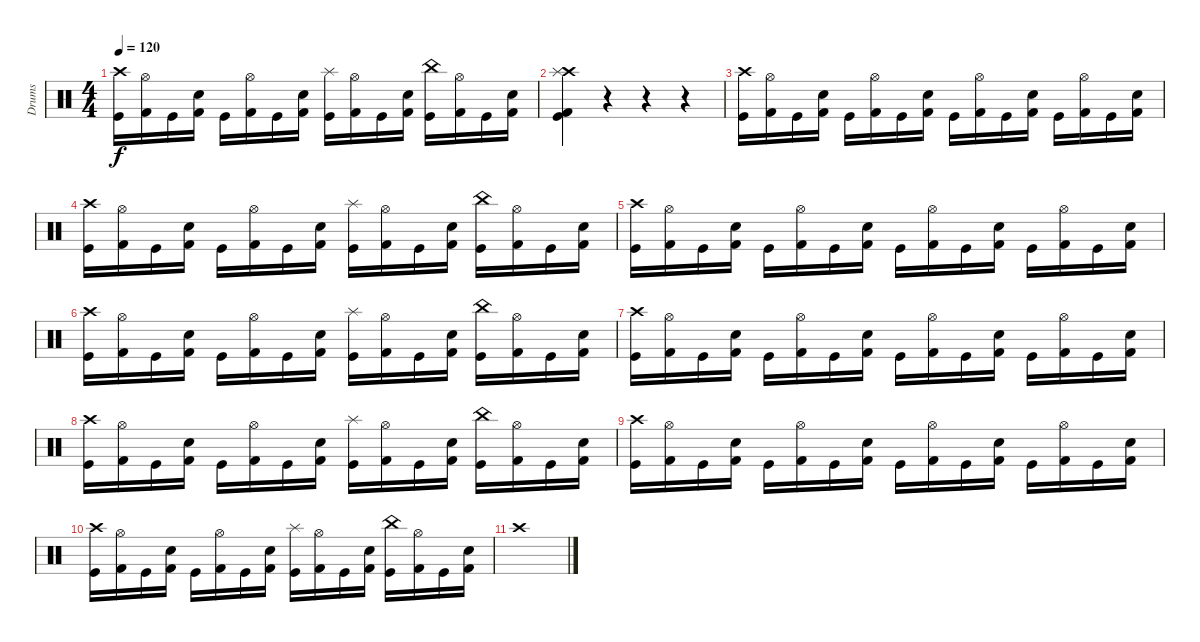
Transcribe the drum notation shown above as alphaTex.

\track ("Drums" "Drums") {instrument percussion}
\staff {score}
\articulation defaults
\ts (4 4)
\tempo 120
\clef neutral
\ks c
("Crash high (hit)" "Kick (hit)").16{dy f} ("Hi-Hat (open)" "Kick (hit) 2").16 "Kick (hit)".16 ("Electric Snare (hit)" "Kick (hit) 2").16 "Kick (hit)".16 ("Hi-Hat (open)" "Kick (hit) 2").16 "Kick (hit)".16 ("Electric Snare (hit)" "Kick (hit) 2").16 ("Splash (hit)" "Kick (hit)").16 ("Hi-Hat (open)" "Kick (hit) 2").16 "Kick (hit)".16 ("Electric Snare (hit)" "Kick (hit) 2").16 ("China (hit)" "Kick (hit)").16 ("Hi-Hat (open)" "Kick (hit) 2").16 "Kick (hit)".16 ("Electric Snare (hit)" "Kick (hit) 2").16 |
("Crash high (hit)" "Splash (hit)" "Kick (hit) 2" "Kick (hit)").4 r.4 r.4 r.4 |
("Crash high (hit)" "Kick (hit)").16 ("Hi-Hat (open)" "Kick (hit) 2").16 "Kick (hit)".16 ("Electric Snare (hit)" "Kick (hit) 2").16 "Kick (hit)".16 ("Hi-Hat (open)" "Kick (hit) 2").16 "Kick (hit)".16 ("Electric Snare (hit)" "Kick (hit) 2").16 "Kick (hit)".16 ("Hi-Hat (open)" "Kick (hit) 2").16 "Kick (hit)".16 ("Electric Snare (hit)" "Kick (hit) 2").16 "Kick (hit)".16 ("Hi-Hat (open)" "Kick (hit) 2").16 "Kick (hit)".16 ("Electric Snare (hit)" "Kick (hit) 2").16 |
("Crash high (hit)" "Kick (hit)").16 ("Hi-Hat (open)" "Kick (hit) 2").16 "Kick (hit)".16 ("Electric Snare (hit)" "Kick (hit) 2").16 "Kick (hit)".16 ("Hi-Hat (open)" "Kick (hit) 2").16 "Kick (hit)".16 ("Electric Snare (hit)" "Kick (hit) 2").16 ("Splash (hit)" "Kick (hit)").16 ("Hi-Hat (open)" "Kick (hit) 2").16 "Kick (hit)".16 ("Electric Snare (hit)" "Kick (hit) 2").16 ("China (hit)" "Kick (hit)").16 ("Hi-Hat (open)" "Kick (hit) 2").16 "Kick (hit)".16 ("Electric Snare (hit)" "Kick (hit) 2").16 |
("Crash high (hit)" "Kick (hit)").16 ("Hi-Hat (open)" "Kick (hit) 2").16 "Kick (hit)".16 ("Electric Snare (hit)" "Kick (hit) 2").16 "Kick (hit)".16 ("Hi-Hat (open)" "Kick (hit) 2").16 "Kick (hit)".16 ("Electric Snare (hit)" "Kick (hit) 2").16 "Kick (hit)".16 ("Hi-Hat (open)" "Kick (hit) 2").16 "Kick (hit)".16 ("Electric Snare (hit)" "Kick (hit) 2").16 "Kick (hit)".16 ("Hi-Hat (open)" "Kick (hit) 2").16 "Kick (hit)".16 ("Electric Snare (hit)" "Kick (hit) 2").16 |
("Crash high (hit)" "Kick (hit)").16 ("Hi-Hat (open)" "Kick (hit) 2").16 "Kick (hit)".16 ("Electric Snare (hit)" "Kick (hit) 2").16 "Kick (hit)".16 ("Hi-Hat (open)" "Kick (hit) 2").16 "Kick (hit)".16 ("Electric Snare (hit)" "Kick (hit) 2").16 ("Splash (hit)" "Kick (hit)").16 ("Hi-Hat (open)" "Kick (hit) 2").16 "Kick (hit)".16 ("Electric Snare (hit)" "Kick (hit) 2").16 ("China (hit)" "Kick (hit)").16 ("Hi-Hat (open)" "Kick (hit) 2").16 "Kick (hit)".16 ("Electric Snare (hit)" "Kick (hit) 2").16 |
("Crash high (hit)" "Kick (hit)").16 ("Hi-Hat (open)" "Kick (hit) 2").16 "Kick (hit)".16 ("Electric Snare (hit)" "Kick (hit) 2").16 "Kick (hit)".16 ("Hi-Hat (open)" "Kick (hit) 2").16 "Kick (hit)".16 ("Electric Snare (hit)" "Kick (hit) 2").16 "Kick (hit)".16 ("Hi-Hat (open)" "Kick (hit) 2").16 "Kick (hit)".16 ("Electric Snare (hit)" "Kick (hit) 2").16 "Kick (hit)".16 ("Hi-Hat (open)" "Kick (hit) 2").16 "Kick (hit)".16 ("Electric Snare (hit)" "Kick (hit) 2").16 |
("Crash high (hit)" "Kick (hit)").16 ("Hi-Hat (open)" "Kick (hit) 2").16 "Kick (hit)".16 ("Electric Snare (hit)" "Kick (hit) 2").16 "Kick (hit)".16 ("Hi-Hat (open)" "Kick (hit) 2").16 "Kick (hit)".16 ("Electric Snare (hit)" "Kick (hit) 2").16 ("Splash (hit)" "Kick (hit)").16 ("Hi-Hat (open)" "Kick (hit) 2").16 "Kick (hit)".16 ("Electric Snare (hit)" "Kick (hit) 2").16 ("China (hit)" "Kick (hit)").16 ("Hi-Hat (open)" "Kick (hit) 2").16 "Kick (hit)".16 ("Electric Snare (hit)" "Kick (hit) 2").16 |
("Crash high (hit)" "Kick (hit)").16 ("Hi-Hat (open)" "Kick (hit) 2").16 "Kick (hit)".16 ("Electric Snare (hit)" "Kick (hit) 2").16 "Kick (hit)".16 ("Hi-Hat (open)" "Kick (hit) 2").16 "Kick (hit)".16 ("Electric Snare (hit)" "Kick (hit) 2").16 "Kick (hit)".16 ("Hi-Hat (open)" "Kick (hit) 2").16 "Kick (hit)".16 ("Electric Snare (hit)" "Kick (hit) 2").16 "Kick (hit)".16 ("Hi-Hat (open)" "Kick (hit) 2").16 "Kick (hit)".16 ("Electric Snare (hit)" "Kick (hit) 2").16 |
("Crash high (hit)" "Kick (hit)").16 ("Hi-Hat (open)" "Kick (hit) 2").16 "Kick (hit)".16 ("Electric Snare (hit)" "Kick (hit) 2").16 "Kick (hit)".16 ("Hi-Hat (open)" "Kick (hit) 2").16 "Kick (hit)".16 ("Electric Snare (hit)" "Kick (hit) 2").16 ("Splash (hit)" "Kick (hit)").16 ("Hi-Hat (open)" "Kick (hit) 2").16 "Kick (hit)".16 ("Electric Snare (hit)" "Kick (hit) 2").16 ("China (hit)" "Kick (hit)").16 ("Hi-Hat (open)" "Kick (hit) 2").16 "Kick (hit)".16 ("Electric Snare (hit)" "Kick (hit) 2").16 |
"Crash high (hit)".1
